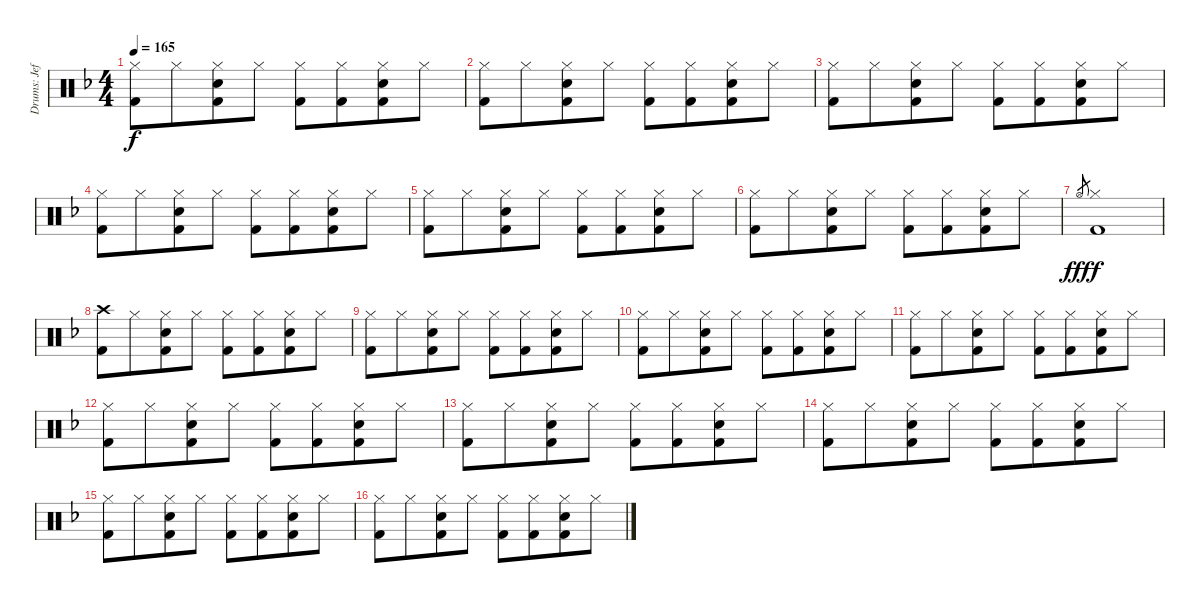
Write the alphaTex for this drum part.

\track ("Drums: Jeff" "Drums: Jef") {instrument percussion}
\staff {score}
\articulation defaults
\ts (4 4)
\tempo 165
\clef neutral
\ks f
("Hi-Hat (closed)" "Kick (hit) 2").8{dy f} "Hi-Hat (closed)".8{beam merge} ("Hi-Hat (closed)" "Snare (hit) 2" "Kick (hit) 2").8 "Hi-Hat (closed)".8{beam split} ("Hi-Hat (closed)" "Kick (hit) 2").8 ("Hi-Hat (closed)" "Kick (hit) 2").8{beam merge} ("Hi-Hat (closed)" "Snare (hit) 2" "Kick (hit) 2").8 "Hi-Hat (closed)".8 |
("Hi-Hat (closed)" "Kick (hit) 2").8 "Hi-Hat (closed)".8{beam merge} ("Hi-Hat (closed)" "Snare (hit) 2" "Kick (hit) 2").8 "Hi-Hat (closed)".8{beam split} ("Hi-Hat (closed)" "Kick (hit) 2").8 ("Hi-Hat (closed)" "Kick (hit) 2").8{beam merge} ("Hi-Hat (closed)" "Snare (hit) 2" "Kick (hit) 2").8 "Hi-Hat (closed)".8 |
("Hi-Hat (closed)" "Kick (hit) 2").8 "Hi-Hat (closed)".8{beam merge} ("Hi-Hat (closed)" "Snare (hit) 2" "Kick (hit) 2").8 "Hi-Hat (closed)".8{beam split} ("Hi-Hat (closed)" "Kick (hit) 2").8 ("Hi-Hat (closed)" "Kick (hit) 2").8{beam merge} ("Hi-Hat (closed)" "Snare (hit) 2" "Kick (hit) 2").8 "Hi-Hat (closed)".8 |
("Hi-Hat (closed)" "Kick (hit) 2").8 "Hi-Hat (closed)".8{beam merge} ("Hi-Hat (closed)" "Snare (hit) 2" "Kick (hit) 2").8 "Hi-Hat (closed)".8{beam split} ("Hi-Hat (closed)" "Kick (hit) 2").8 ("Hi-Hat (closed)" "Kick (hit) 2").8{beam merge} ("Hi-Hat (closed)" "Snare (hit) 2" "Kick (hit) 2").8 "Hi-Hat (closed)".8 |
("Hi-Hat (closed)" "Kick (hit) 2").8 "Hi-Hat (closed)".8{beam merge} ("Hi-Hat (closed)" "Snare (hit) 2" "Kick (hit) 2").8 "Hi-Hat (closed)".8{beam split} ("Hi-Hat (closed)" "Kick (hit) 2").8 ("Hi-Hat (closed)" "Kick (hit) 2").8{beam merge} ("Hi-Hat (closed)" "Snare (hit) 2" "Kick (hit) 2").8 "Hi-Hat (closed)".8 |
("Hi-Hat (closed)" "Kick (hit) 2").8 "Hi-Hat (closed)".8{beam merge} ("Hi-Hat (closed)" "Snare (hit) 2" "Kick (hit) 2").8 "Hi-Hat (closed)".8{beam split} ("Hi-Hat (closed)" "Kick (hit) 2").8 ("Hi-Hat (closed)" "Kick (hit) 2").8{beam merge} ("Hi-Hat (closed)" "Snare (hit) 2" "Kick (hit) 2").8 "Hi-Hat (closed)".8 |
"Hi-Hat (open)".8{gr dy fff} ("Hi-Hat (closed)" "Kick (hit) 2").1{dy f} |
("Crash high (hit)" "Kick (hit) 2").8 "Hi-Hat (closed)".8{beam merge} ("Hi-Hat (closed)" "Snare (hit) 2" "Kick (hit) 2").8 "Hi-Hat (closed)".8{beam split} ("Hi-Hat (closed)" "Kick (hit) 2").8 ("Hi-Hat (closed)" "Kick (hit) 2").8{beam merge} ("Hi-Hat (closed)" "Snare (hit) 2" "Kick (hit) 2").8 "Hi-Hat (closed)".8 |
("Hi-Hat (closed)" "Kick (hit) 2").8 "Hi-Hat (closed)".8{beam merge} ("Hi-Hat (closed)" "Snare (hit) 2" "Kick (hit) 2").8 "Hi-Hat (closed)".8{beam split} ("Hi-Hat (closed)" "Kick (hit) 2").8 ("Hi-Hat (closed)" "Kick (hit) 2").8{beam merge} ("Hi-Hat (closed)" "Snare (hit) 2" "Kick (hit) 2").8 "Hi-Hat (closed)".8 |
("Hi-Hat (closed)" "Kick (hit) 2").8 "Hi-Hat (closed)".8{beam merge} ("Hi-Hat (closed)" "Snare (hit) 2" "Kick (hit) 2").8 "Hi-Hat (closed)".8{beam split} ("Hi-Hat (closed)" "Kick (hit) 2").8 ("Hi-Hat (closed)" "Kick (hit) 2").8{beam merge} ("Hi-Hat (closed)" "Snare (hit) 2" "Kick (hit) 2").8 "Hi-Hat (closed)".8 |
("Hi-Hat (closed)" "Kick (hit) 2").8 "Hi-Hat (closed)".8{beam merge} ("Hi-Hat (closed)" "Snare (hit) 2" "Kick (hit) 2").8 "Hi-Hat (closed)".8{beam split} ("Hi-Hat (closed)" "Kick (hit) 2").8 ("Hi-Hat (closed)" "Kick (hit) 2").8{beam merge} ("Hi-Hat (closed)" "Snare (hit) 2" "Kick (hit) 2").8 "Hi-Hat (closed)".8 |
("Hi-Hat (closed)" "Kick (hit) 2").8 "Hi-Hat (closed)".8{beam merge} ("Hi-Hat (closed)" "Snare (hit) 2" "Kick (hit) 2").8 "Hi-Hat (closed)".8{beam split} ("Hi-Hat (closed)" "Kick (hit) 2").8 ("Hi-Hat (closed)" "Kick (hit) 2").8{beam merge} ("Hi-Hat (closed)" "Snare (hit) 2" "Kick (hit) 2").8 "Hi-Hat (closed)".8 |
("Hi-Hat (closed)" "Kick (hit) 2").8 "Hi-Hat (closed)".8{beam merge} ("Hi-Hat (closed)" "Snare (hit) 2" "Kick (hit) 2").8 "Hi-Hat (closed)".8{beam split} ("Hi-Hat (closed)" "Kick (hit) 2").8 ("Hi-Hat (closed)" "Kick (hit) 2").8{beam merge} ("Hi-Hat (closed)" "Snare (hit) 2" "Kick (hit) 2").8 "Hi-Hat (closed)".8 |
("Hi-Hat (closed)" "Kick (hit) 2").8 "Hi-Hat (closed)".8{beam merge} ("Hi-Hat (closed)" "Snare (hit) 2" "Kick (hit) 2").8 "Hi-Hat (closed)".8{beam split} ("Hi-Hat (closed)" "Kick (hit) 2").8 ("Hi-Hat (closed)" "Kick (hit) 2").8{beam merge} ("Hi-Hat (closed)" "Snare (hit) 2" "Kick (hit) 2").8 "Hi-Hat (closed)".8 |
("Hi-Hat (closed)" "Kick (hit) 2").8 "Hi-Hat (closed)".8{beam merge} ("Hi-Hat (closed)" "Snare (hit) 2" "Kick (hit) 2").8 "Hi-Hat (closed)".8{beam split} ("Hi-Hat (closed)" "Kick (hit) 2").8 ("Hi-Hat (closed)" "Kick (hit) 2").8{beam merge} ("Hi-Hat (closed)" "Snare (hit) 2" "Kick (hit) 2").8 "Hi-Hat (closed)".8 |
("Hi-Hat (closed)" "Kick (hit) 2").8 "Hi-Hat (closed)".8{beam merge} ("Hi-Hat (closed)" "Snare (hit) 2" "Kick (hit) 2").8 "Hi-Hat (closed)".8{beam split} ("Hi-Hat (closed)" "Kick (hit) 2").8 ("Hi-Hat (closed)" "Kick (hit) 2").8{beam merge} ("Hi-Hat (closed)" "Snare (hit) 2" "Kick (hit) 2").8 "Hi-Hat (closed)".8
